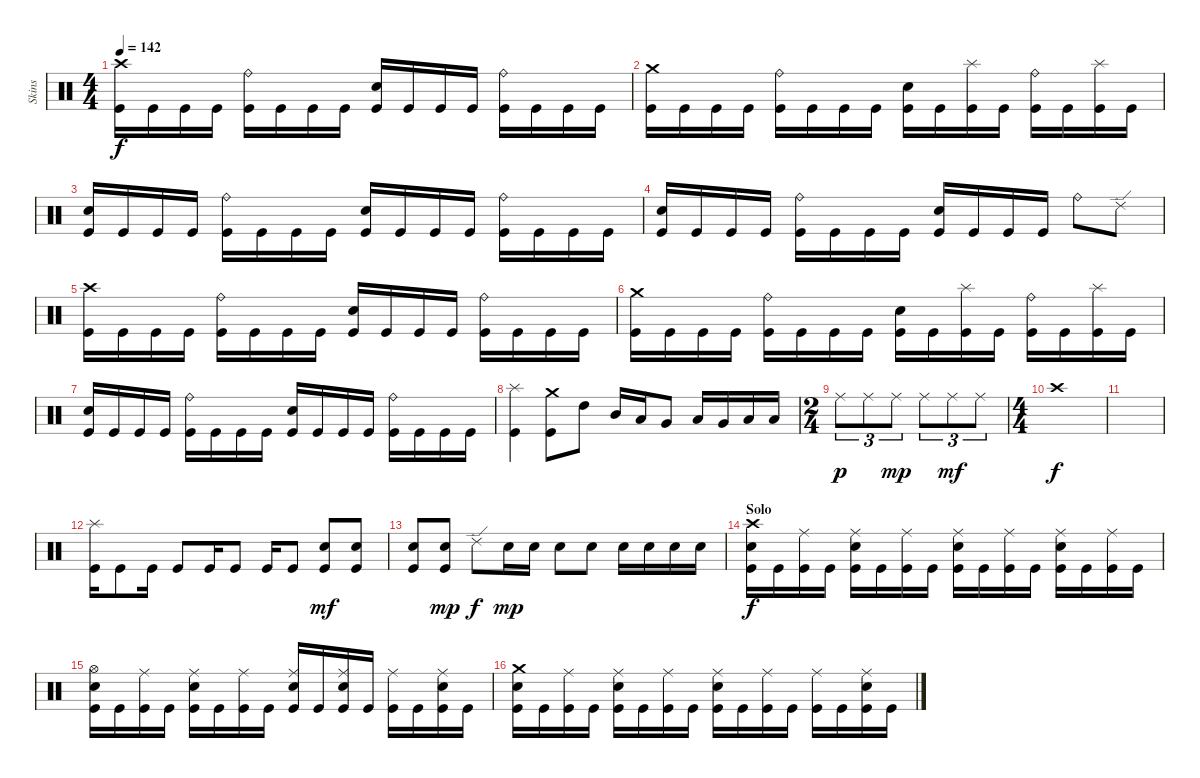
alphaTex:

\track ("Skins" "Skins") {instrument percussion}
\staff {score}
\articulation defaults
\ts (4 4)
\tempo 142
\clef neutral
\ks c
("Crash high (hit)" "Kick (hit)").16{dy f} "Kick (hit)".16 "Kick (hit)".16 "Kick (hit)".16 ("Ride (bell)" "Kick (hit)").16 "Kick (hit)".16 "Kick (hit)".16 "Kick (hit)".16 ("Electric Snare (hit)" "Kick (hit)").16 "Kick (hit)".16 "Kick (hit)".16 "Kick (hit)".16 ("Ride (bell)" "Kick (hit)").16 "Kick (hit)".16 "Kick (hit)".16 "Kick (hit)".16 |
("Crash medium (hit)" "Kick (hit)").16 "Kick (hit)".16 "Kick (hit)".16 "Kick (hit)".16 ("Ride (bell)" "Kick (hit)").16 "Kick (hit)".16 "Kick (hit)".16 "Kick (hit)".16 ("Electric Snare (hit)" "Kick (hit)").16 "Kick (hit)".16 ("Splash (hit)" "Kick (hit)").16 "Kick (hit)".16 ("Ride (bell)" "Kick (hit)").16 "Kick (hit)".16 ("Splash (hit)" "Kick (hit)").16 "Kick (hit)".16 |
("Electric Snare (hit)" "Kick (hit)").16 "Kick (hit)".16 "Kick (hit)".16 "Kick (hit)".16 ("Ride (bell)" "Kick (hit)").16 "Kick (hit)".16 "Kick (hit)".16 "Kick (hit)".16 ("Electric Snare (hit)" "Kick (hit)").16 "Kick (hit)".16 "Kick (hit)".16 "Kick (hit)".16 ("Ride (bell)" "Kick (hit)").16 "Kick (hit)".16 "Kick (hit)".16 "Kick (hit)".16 |
("Electric Snare (hit)" "Kick (hit)").16 "Kick (hit)".16 "Kick (hit)".16 "Kick (hit)".16 ("Ride (bell)" "Kick (hit)").16 "Kick (hit)".16 "Kick (hit)".16 "Kick (hit)".16 ("Electric Snare (hit)" "Kick (hit)").16 "Kick (hit)".16 "Kick (hit)".16 "Kick (hit)".16 "Ride (bell)".8 "Ride (edge) 2".8 |
("Crash high (hit)" "Kick (hit)").16 "Kick (hit)".16 "Kick (hit)".16 "Kick (hit)".16 ("Ride (bell)" "Kick (hit)").16 "Kick (hit)".16 "Kick (hit)".16 "Kick (hit)".16 ("Electric Snare (hit)" "Kick (hit)").16 "Kick (hit)".16 "Kick (hit)".16 "Kick (hit)".16 ("Ride (bell)" "Kick (hit)").16 "Kick (hit)".16 "Kick (hit)".16 "Kick (hit)".16 |
("Crash medium (hit)" "Kick (hit)").16 "Kick (hit)".16 "Kick (hit)".16 "Kick (hit)".16 ("Ride (bell)" "Kick (hit)").16 "Kick (hit)".16 "Kick (hit)".16 "Kick (hit)".16 ("Electric Snare (hit)" "Kick (hit)").16 "Kick (hit)".16 ("Splash (hit)" "Kick (hit)").16 "Kick (hit)".16 ("Ride (bell)" "Kick (hit)").16 "Kick (hit)".16 ("Splash (hit)" "Kick (hit)").16 "Kick (hit)".16 |
("Electric Snare (hit)" "Kick (hit)").16 "Kick (hit)".16 "Kick (hit)".16 "Kick (hit)".16 ("Ride (bell)" "Kick (hit)").16 "Kick (hit)".16 "Kick (hit)".16 "Kick (hit)".16 ("Electric Snare (hit)" "Kick (hit)").16 "Kick (hit)".16 "Kick (hit)".16 "Kick (hit)".16 ("Ride (bell)" "Kick (hit)").16 "Kick (hit)".16 "Kick (hit)".16 "Kick (hit)".16 |
("Splash (hit)" "Kick (hit)").4 ("Crash medium (hit)" "Kick (hit)").8 "High Tom (hit)".8 "Mid Tom (hit)".16 "Low Tom (hit)".16 "Very Low Tom (hit)".8 "Low Tom (hit)".16 "Very Low Tom (hit)".16 "Low Floor Tom (hit)".16 "Low Floor Tom (hit)".16 |
\ts (2 4)
"Ride (middle)".8{tu (3 2) dy p} "Ride (middle)".8{tu (3 2)} "Ride (middle)".8{tu (3 2) dy mp} "Ride (middle)".8{tu (3 2)} "Ride (middle)".8{tu (3 2) dy mf} "Ride (middle)".8{tu (3 2)} |
\ts (4 4)
"Crash high (hit)".1{dy f} |
|
("Splash (hit)" "Kick (hit)").16 "Kick (hit)".8 "Kick (hit)".16 "Kick (hit)".8 "Kick (hit)".16 "Kick (hit)".8 "Kick (hit)".16 "Kick (hit)".8 ("Snare (hit) 2" "Kick (hit)").8{dy mf} ("Snare (hit) 2" "Kick (hit)").8 |
("Snare (hit) 2" "Kick (hit)").8 ("Snare (hit) 2" "Kick (hit)").8{dy mp} "Ride (edge) 2".8{dy f} "Snare (hit) 2".16{dy mp} "Snare (hit) 2".16 "Snare (hit) 2".8 "Snare (hit) 2".8 "Snare (hit) 2".16 "Snare (hit) 2".16 "Snare (hit) 2".16 "Snare (hit) 2".16 |
\section ("" "Solo")
("Crash high (hit)" "Snare (hit) 2" "Kick (hit)").16{dy f} "Kick (hit)".16 ("Ride (middle)" "Kick (hit)").16 "Kick (hit)".16 ("Ride (middle)" "Snare (hit) 2" "Kick (hit)").16 "Kick (hit)".16 ("Ride (middle)" "Kick (hit)").16 "Kick (hit)".16 ("Ride (middle)" "Snare (hit) 2" "Kick (hit)").16 "Kick (hit)".16 ("Ride (middle)" "Kick (hit)").16 "Kick (hit)".16 ("Ride (middle)" "Snare (hit) 2" "Kick (hit)").16 "Kick (hit)".16 ("Ride (middle)" "Kick (hit)").16 "Kick (hit)".16 |
("Hi-Hat (open)" "Electric Snare (hit)" "Kick (hit)").16 "Kick (hit)".16 ("Ride (middle)" "Kick (hit)").16 "Kick (hit)".16 ("Ride (middle)" "Snare (hit) 2" "Kick (hit)").16 "Kick (hit)".16 ("Ride (middle)" "Kick (hit)").16 "Kick (hit)".16 ("Ride (middle)" "Snare (hit) 2" "Kick (hit)").16 "Kick (hit)".16 ("Ride (middle)" "Snare (hit) 2" "Kick (hit)").16 "Kick (hit)".16 ("Ride (middle)" "Kick (hit)").16 "Kick (hit)".16 ("Ride (middle)" "Snare (hit) 2" "Kick (hit)").16 "Kick (hit)".16 |
("Crash medium (hit)" "Electric Snare (hit)" "Kick (hit)").16 "Kick (hit)".16 ("Ride (middle)" "Kick (hit)").16 "Kick (hit)".16 ("Ride (middle)" "Snare (hit) 2" "Kick (hit)").16 "Kick (hit)".16 ("Ride (middle)" "Kick (hit)").16 "Kick (hit)".16 ("Ride (middle)" "Snare (hit) 2" "Kick (hit)").16 "Kick (hit)".16 ("Ride (middle)" "Kick (hit)").16 "Kick (hit)".16 ("Ride (middle)" "Kick (hit)").16 "Kick (hit)".16 ("Ride (middle)" "Snare (hit) 2" "Kick (hit)").16 "Kick (hit)".16
